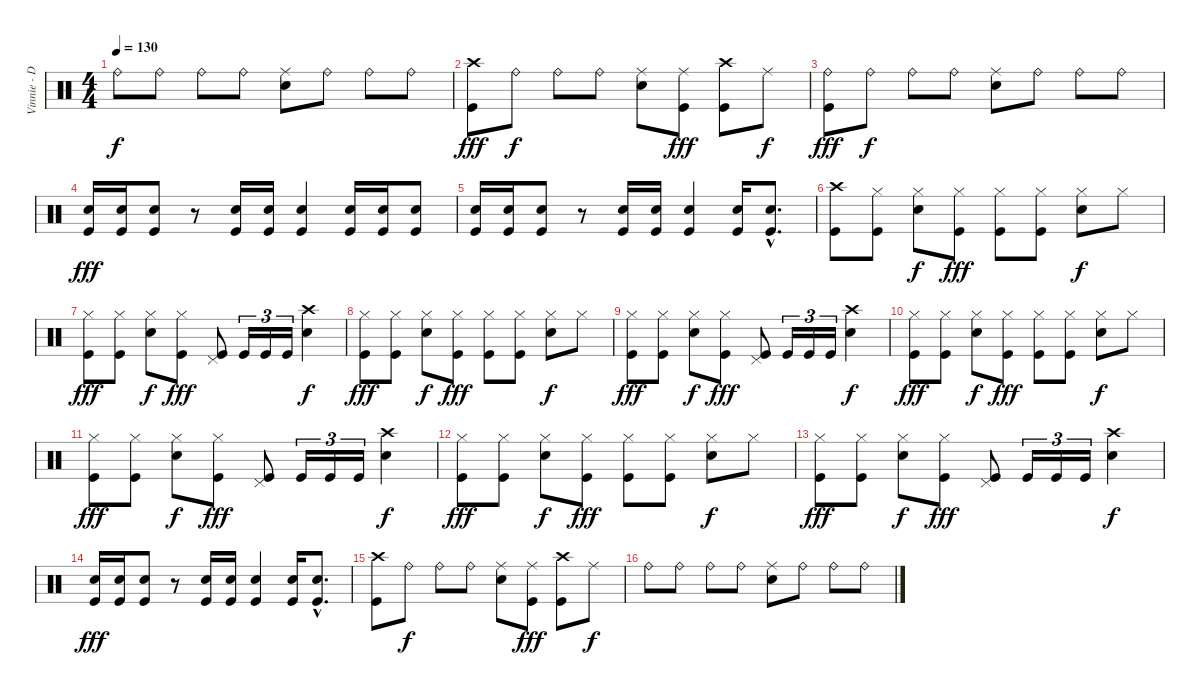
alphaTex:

\track ("Vinnie - Drums" "Vinnie - D") {instrument percussion}
\staff {score}
\articulation defaults
\ts (4 4)
\tempo 130
\clef neutral
\ks c "Ride (bell)".8{dy f} "Ride (bell)".8 "Ride (bell)".8 "Ride (bell)".8
("Ride (middle)" "Electric Snare (hit)").8 "Ride (bell)".8 "Ride (bell)".8 "Ride (bell)".8 |
("Crash high (hit)" "Kick (hit)").8{dy fff} "Ride (bell)".8{dy f} "Ride (bell)".8 "Ride (bell)".8 ("Ride (middle)" "Electric Snare (hit)").8 ("Ride (middle)" "Kick (hit)").8{dy fff} ("Crash high (hit)" "Kick (hit)").8 "Ride (middle)".8{dy f} |
("Ride (bell)" "Kick (hit)").8{dy fff} "Ride (bell)".8{dy f} "Ride (bell)".8 "Ride (bell)".8 ("Ride (middle)" "Electric Snare (hit)").8 "Ride (bell)".8 "Ride (bell)".8 "Ride (bell)".8 |
("Electric Snare (hit)" "Kick (hit)").16{dy fff} ("Electric Snare (hit)" "Kick (hit)").16 ("Electric Snare (hit)" "Kick (hit)").8 r.8 ("Electric Snare (hit)" "Kick (hit)").16 ("Electric Snare (hit)" "Kick (hit)").16 ("Electric Snare (hit)" "Kick (hit)").4 ("Electric Snare (hit)" "Kick (hit)").16 ("Electric Snare (hit)" "Kick (hit)").16 ("Electric Snare (hit)" "Kick (hit)").8 |
("Electric Snare (hit)" "Kick (hit)").16 ("Electric Snare (hit)" "Kick (hit)").16 ("Electric Snare (hit)" "Kick (hit)").8 r.8 ("Electric Snare (hit)" "Kick (hit)").16 ("Electric Snare (hit)" "Kick (hit)").16 ("Electric Snare (hit)" "Kick (hit)").4 ("Electric Snare (hit)" "Kick (hit)").16 ("Electric Snare (hit)"{hac} "Kick (hit)"{hac}).8{d} |
("Crash high (hit)" "Kick (hit)").8 ("Hi-Hat (closed)" "Kick (hit)").8 ("Hi-Hat (closed)" "Electric Snare (hit)").8{dy f} ("Hi-Hat (closed)" "Kick (hit)").8{dy fff} ("Hi-Hat (closed)" "Kick (hit)").8 ("Hi-Hat (closed)" "Kick (hit)").8 ("Hi-Hat (closed)" "Electric Snare (hit)").8{dy f} "Hi-Hat (closed)".8 |
("Hi-Hat (closed)" "Kick (hit)").8{dy fff} ("Hi-Hat (closed)" "Kick (hit)").8 ("Hi-Hat (closed)" "Electric Snare (hit)").8{dy f} ("Hi-Hat (closed)" "Kick (hit)").8{dy fff} ("Pedal Hi-Hat (hit)" "Kick (hit)").8 "Kick (hit)".16{tu (3 2)} "Kick (hit)".16{tu (3 2)} "Kick (hit)".16{tu (3 2)} ("Crash high (hit)" "Electric Snare (hit)").4{dy f} |
("Hi-Hat (closed)" "Kick (hit)").8{dy fff} ("Hi-Hat (closed)" "Kick (hit)").8 ("Hi-Hat (closed)" "Electric Snare (hit)").8{dy f} ("Hi-Hat (closed)" "Kick (hit)").8{dy fff} ("Hi-Hat (closed)" "Kick (hit)").8 ("Hi-Hat (closed)" "Kick (hit)").8 ("Hi-Hat (closed)" "Electric Snare (hit)").8{dy f} "Hi-Hat (closed)".8 |
("Hi-Hat (closed)" "Kick (hit)").8{dy fff} ("Hi-Hat (closed)" "Kick (hit)").8 ("Hi-Hat (closed)" "Electric Snare (hit)").8{dy f} ("Hi-Hat (closed)" "Kick (hit)").8{dy fff} ("Pedal Hi-Hat (hit)" "Kick (hit)").8 "Kick (hit)".16{tu (3 2)} "Kick (hit)".16{tu (3 2)} "Kick (hit)".16{tu (3 2)} ("Crash high (hit)" "Electric Snare (hit)").4{dy f} |
("Hi-Hat (closed)" "Kick (hit)").8{dy fff} ("Hi-Hat (closed)" "Kick (hit)").8 ("Hi-Hat (closed)" "Electric Snare (hit)").8{dy f} ("Hi-Hat (closed)" "Kick (hit)").8{dy fff} ("Hi-Hat (closed)" "Kick (hit)").8 ("Hi-Hat (closed)" "Kick (hit)").8 ("Hi-Hat (closed)" "Electric Snare (hit)").8{dy f} "Hi-Hat (closed)".8 |
("Hi-Hat (closed)" "Kick (hit)").8{dy fff} ("Hi-Hat (closed)" "Kick (hit)").8 ("Hi-Hat (closed)" "Electric Snare (hit)").8{dy f} ("Hi-Hat (closed)" "Kick (hit)").8{dy fff} ("Pedal Hi-Hat (hit)" "Kick (hit)").8 "Kick (hit)".16{tu (3 2)} "Kick (hit)".16{tu (3 2)} "Kick (hit)".16{tu (3 2)} ("Crash high (hit)" "Electric Snare (hit)").4{dy f} |
("Hi-Hat (closed)" "Kick (hit)").8{dy fff} ("Hi-Hat (closed)" "Kick (hit)").8 ("Hi-Hat (closed)" "Electric Snare (hit)").8{dy f} ("Hi-Hat (closed)" "Kick (hit)").8{dy fff} ("Hi-Hat (closed)" "Kick (hit)").8 ("Hi-Hat (closed)" "Kick (hit)").8 ("Hi-Hat (closed)" "Electric Snare (hit)").8{dy f} "Hi-Hat (closed)".8 |
("Hi-Hat (closed)" "Kick (hit)").8{dy fff} ("Hi-Hat (closed)" "Kick (hit)").8 ("Hi-Hat (closed)" "Electric Snare (hit)").8{dy f} ("Hi-Hat (closed)" "Kick (hit)").8{dy fff} ("Pedal Hi-Hat (hit)" "Kick (hit)").8 "Kick (hit)".16{tu (3 2)} "Kick (hit)".16{tu (3 2)} "Kick (hit)".16{tu (3 2)} ("Crash high (hit)" "Electric Snare (hit)").4{dy f} |
("Electric Snare (hit)" "Kick (hit)").16{dy fff} ("Electric Snare (hit)" "Kick (hit)").16 ("Electric Snare (hit)" "Kick (hit)").8 r.8 ("Electric Snare (hit)" "Kick (hit)").16 ("Electric Snare (hit)" "Kick (hit)").16 ("Electric Snare (hit)" "Kick (hit)").4 ("Electric Snare (hit)" "Kick (hit)").16 ("Electric Snare (hit)"{hac} "Kick (hit)"{hac}).8{d} |
("Crash high (hit)" "Kick (hit)").8 "Ride (bell)".8{dy f} "Ride (bell)".8 "Ride (bell)".8 ("Ride (middle)" "Electric Snare (hit)").8 ("Ride (middle)" "Kick (hit)").8{dy fff} ("Crash high (hit)" "Kick (hit)").8 "Ride (middle)".8{dy f} |
"Ride (bell)".8 "Ride (bell)".8 "Ride (bell)".8 "Ride (bell)".8 ("Ride (middle)" "Electric Snare (hit)").8 "Ride (bell)".8 "Ride (bell)".8 "Ride (bell)".8
